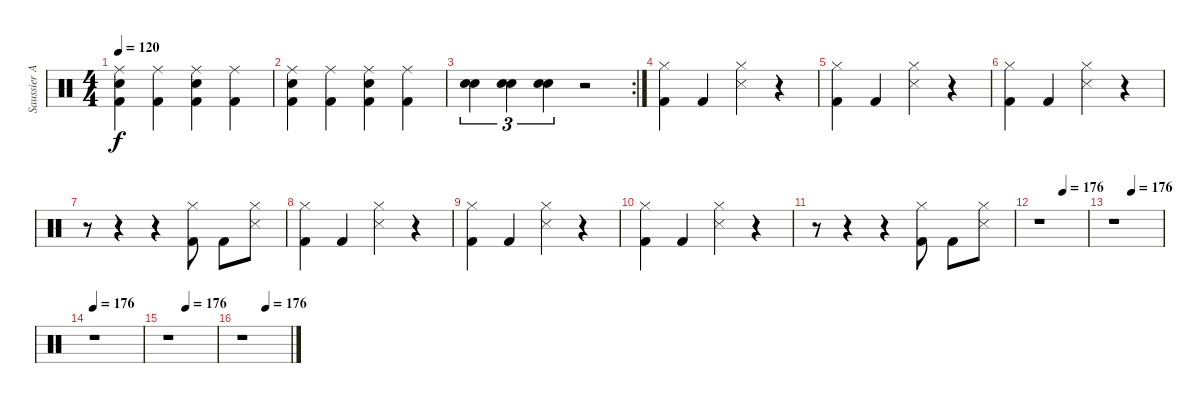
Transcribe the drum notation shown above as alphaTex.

\track ("Saussier Arthur" "Saussier A") {instrument percussion}
\staff {score}
\articulation defaults
\ts (4 4)
\tempo 120
\clef neutral
\ks c
("Ride (middle)" "Electric Snare (hit)" "Kick (hit) 2").4{dy f} ("Ride (middle)" "Kick (hit) 2").4 ("Ride (middle)" "Electric Snare (hit)" "Kick (hit) 2").4 ("Ride (middle)" "Kick (hit) 2").4 |
("Ride (middle)" "Electric Snare (hit)" "Kick (hit) 2").4 ("Ride (middle)" "Kick (hit) 2").4 ("Ride (middle)" "Electric Snare (hit)" "Kick (hit) 2").4 ("Ride (middle)" "Kick (hit) 2").4 |
\rc 2
("Snare (hit) 2" "Snare (hit) 2").4{tu (3 2)} ("Snare (hit) 2" "Snare (hit) 2").4{tu (3 2)} ("Snare (hit) 2" "Snare (hit) 2").4{tu (3 2)} r.2 |
("Hi-Hat (closed)" "Kick (hit) 2").4 "Kick (hit) 2".4 ("Hi-Hat (closed)" "Snare (side stick) 3").4 r.4 |
("Hi-Hat (closed)" "Kick (hit) 2").4 "Kick (hit) 2".4 ("Hi-Hat (closed)" "Snare (side stick) 3").4 r.4 |
("Hi-Hat (closed)" "Kick (hit) 2").4 "Kick (hit) 2".4 ("Hi-Hat (closed)" "Snare (side stick) 3").4 r.4 |
r.8 r.4 r.4 ("Hi-Hat (closed)" "Kick (hit) 2").8 "Kick (hit) 2".8 ("Hi-Hat (closed)" "Snare (side stick) 3").8 |
("Hi-Hat (closed)" "Kick (hit) 2").4 "Kick (hit) 2".4 ("Hi-Hat (closed)" "Snare (side stick) 3").4 r.4 |
("Hi-Hat (closed)" "Kick (hit) 2").4 "Kick (hit) 2".4 ("Hi-Hat (closed)" "Snare (side stick) 3").4 r.4 |
("Hi-Hat (closed)" "Kick (hit) 2").4 "Kick (hit) 2".4 ("Hi-Hat (closed)" "Snare (side stick) 3").4 r.4 |
r.8 r.4 r.4 ("Hi-Hat (closed)" "Kick (hit) 2").8 "Kick (hit) 2".8 ("Hi-Hat (closed)" "Snare (side stick) 3").8 |
\tempo (176 0.5)
r.1 |
\tempo (176 0.375)
r.1 |
\tempo 176
r.1 |
\tempo (176 0.375)
r.1 |
\tempo (176 0.5)
r.1
